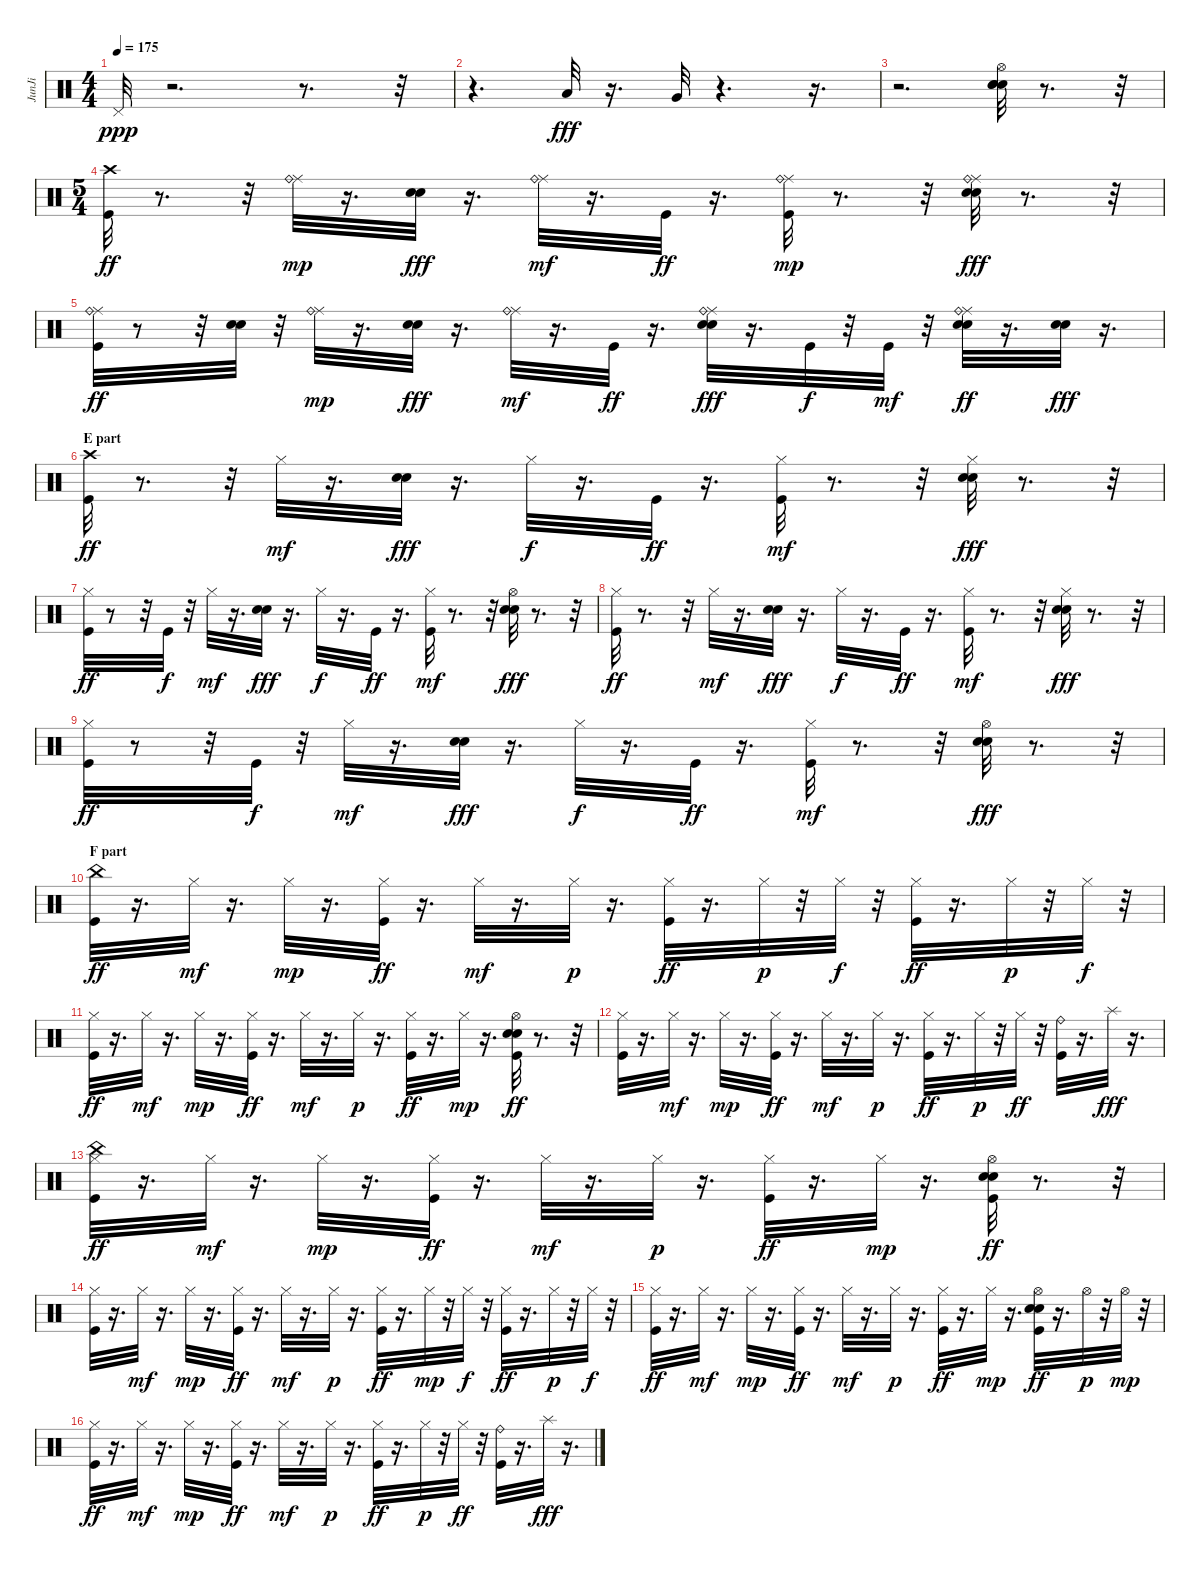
\track ("JunJi" "JunJi") {instrument percussion}
\staff {score}
\articulation defaults
\ts (4 4)
\tempo 175
\clef neutral
\ks c "Pedal Hi-Hat (hit)".32{dy ppp}
r.2{d} r.8{d} r.32 |
r.4{d} "Low Floor Tom (hit)".32{dy fff} r.16{d} "Very Low Tom (hit)".32 r.4{d} r.16{d} |
r.2{d} ("Hi-Hat (open)" "Electric Snare (hit)" "Snare (hit) 2" "Electric Snare (hit)").32 r.8{d} r.32 |
\ts (5 4)
("Crash high (hit)" "Kick (hit)").32{dy ff} r.8{d} r.32 ("Ride (middle)" "Ride (bell)").32{dy mp} r.16{d} ("Electric Snare (hit)" "Snare (hit) 2").32{dy fff} r.16{d} ("Ride (middle)" "Ride (bell)").32{dy mf} r.16{d} "Kick (hit)".32{dy ff} r.16{d} ("Ride (middle)" "Ride (bell)" "Kick (hit)").32{dy mp} r.8{d} r.32 ("Ride (middle)" "Ride (bell)" "Electric Snare (hit)" "Snare (hit) 2").32{dy fff} r.8{d} r.32 |
("Ride (middle)" "Ride (bell)" "Kick (hit)").32{dy ff} r.8 r.32 ("Electric Snare (hit)" "Snare (hit) 2").32 r.32 ("Ride (middle)" "Ride (bell)").32{dy mp} r.16{d} ("Electric Snare (hit)" "Snare (hit) 2").32{dy fff} r.16{d} ("Ride (middle)" "Ride (bell)").32{dy mf} r.16{d} "Kick (hit)".32{dy ff} r.16{d} ("Ride (middle)" "Ride (bell)" "Electric Snare (hit)" "Snare (hit) 2").32{dy fff} r.16{d} "Kick (hit)".32{dy f} r.32 "Kick (hit)".32{dy mf} r.32 ("Ride (middle)" "Ride (bell)" "Electric Snare (hit)" "Snare (hit) 2").32{dy ff} r.16{d} ("Electric Snare (hit)" "Snare (hit) 2").32{dy fff} r.16{d} |
\section ("" "E part")
("Crash high (hit)" "Kick (hit)").32{dy ff} r.8{d} r.32 "Hi-Hat (closed)".32{dy mf} r.16{d} ("Electric Snare (hit)" "Snare (hit) 2").32{dy fff} r.16{d} "Hi-Hat (closed)".32{dy f} r.16{d} "Kick (hit)".32{dy ff} r.16{d} ("Hi-Hat (closed)" "Kick (hit)").32{dy mf} r.8{d} r.32 ("Hi-Hat (closed)" "Electric Snare (hit)" "Snare (hit) 2").32{dy fff} r.8{d} r.32 |
("Hi-Hat (closed)" "Kick (hit)").32{dy ff} r.8 r.32 "Kick (hit)".32{dy f} r.32 "Hi-Hat (closed)".32{dy mf} r.16{d} ("Electric Snare (hit)" "Snare (hit) 2").32{dy fff} r.16{d} "Hi-Hat (closed)".32{dy f} r.16{d} "Kick (hit)".32{dy ff} r.16{d} ("Hi-Hat (closed)" "Kick (hit)").32{dy mf} r.8{d} r.32 ("Hi-Hat (open)" "Electric Snare (hit)" "Snare (hit) 2").32{dy fff} r.8{d} r.32 |
("Hi-Hat (closed)" "Kick (hit)").32{dy ff} r.8{d} r.32 "Hi-Hat (closed)".32{dy mf} r.16{d} ("Electric Snare (hit)" "Snare (hit) 2").32{dy fff} r.16{d} "Hi-Hat (closed)".32{dy f} r.16{d} "Kick (hit)".32{dy ff} r.16{d} ("Hi-Hat (closed)" "Kick (hit)").32{dy mf} r.8{d} r.32 ("Hi-Hat (closed)" "Electric Snare (hit)" "Snare (hit) 2").32{dy fff} r.8{d} r.32 |
("Hi-Hat (closed)" "Kick (hit)").32{dy ff} r.8 r.32 "Kick (hit)".32{dy f} r.32 "Hi-Hat (closed)".32{dy mf} r.16{d} ("Electric Snare (hit)" "Snare (hit) 2").32{dy fff} r.16{d} "Hi-Hat (closed)".32{dy f} r.16{d} "Kick (hit)".32{dy ff} r.16{d} ("Hi-Hat (closed)" "Kick (hit)").32{dy mf} r.8{d} r.32 ("Hi-Hat (open)" "Electric Snare (hit)" "Snare (hit) 2").32{dy fff} r.8{d} r.32 |
\section ("" "F part")
("China (hit)" "Kick (hit)").32{dy ff} r.16{d} "Hi-Hat (closed)".32{dy mf} r.16{d} "Hi-Hat (closed)".32{dy mp} r.16{d} ("Hi-Hat (closed)" "Kick (hit)").32{dy ff} r.16{d} "Hi-Hat (closed)".32{dy mf} r.16{d} "Hi-Hat (closed)".32{dy p} r.16{d} ("Hi-Hat (closed)" "Kick (hit)").32{dy ff} r.16{d} "Hi-Hat (closed)".32{dy p} r.32 "Hi-Hat (closed)".32{dy f} r.32 ("Hi-Hat (closed)" "Kick (hit)").32{dy ff} r.16{d} "Hi-Hat (closed)".32{dy p} r.32 "Hi-Hat (closed)".32{dy f} r.32 |
("Hi-Hat (closed)" "Kick (hit)").32{dy ff} r.16{d} "Hi-Hat (closed)".32{dy mf} r.16{d} "Hi-Hat (closed)".32{dy mp} r.16{d} ("Hi-Hat (closed)" "Kick (hit)").32{dy ff} r.16{d} "Hi-Hat (closed)".32{dy mf} r.16{d} "Hi-Hat (closed)".32{dy p} r.16{d} ("Hi-Hat (closed)" "Kick (hit)").32{dy ff} r.16{d} "Hi-Hat (closed)".32{dy mp} r.16{d} ("Hi-Hat (open)" "Electric Snare (hit)" "Kick (hit)" "Snare (hit) 2").32{dy ff} r.8{d} r.32 |
("Hi-Hat (closed)" "Kick (hit)").32 r.16{d} "Hi-Hat (closed)".32{dy mf} r.16{d} "Hi-Hat (closed)".32{dy mp} r.16{d} ("Hi-Hat (closed)" "Kick (hit)").32{dy ff} r.16{d} "Hi-Hat (closed)".32{dy mf} r.16{d} "Hi-Hat (closed)".32{dy p} r.16{d} ("Hi-Hat (closed)" "Kick (hit)").32{dy ff} r.16{d} "Hi-Hat (closed)".32{dy p} r.32 "Hi-Hat (closed)".32{dy ff} r.32 ("Ride (bell)" "Kick (hit)").32 r.16{d} "Splash (hit)".32{dy fff} r.16{d} |
("Hi-Hat (closed)" "China (hit)" "Kick (hit)").32{dy ff} r.16{d} "Hi-Hat (closed)".32{dy mf} r.16{d} "Hi-Hat (closed)".32{dy mp} r.16{d} ("Hi-Hat (closed)" "Kick (hit)").32{dy ff} r.16{d} "Hi-Hat (closed)".32{dy mf} r.16{d} "Hi-Hat (closed)".32{dy p} r.16{d} ("Hi-Hat (closed)" "Kick (hit)").32{dy ff} r.16{d} "Hi-Hat (closed)".32{dy mp} r.16{d} ("Hi-Hat (open)" "Electric Snare (hit)" "Kick (hit)" "Snare (hit) 2").32{dy ff} r.8{d} r.32 |
("Hi-Hat (closed)" "Kick (hit)").32 r.16{d} "Hi-Hat (closed)".32{dy mf} r.16{d} "Hi-Hat (closed)".32{dy mp} r.16{d} ("Hi-Hat (closed)" "Kick (hit)").32{dy ff} r.16{d} "Hi-Hat (closed)".32{dy mf} r.16{d} "Hi-Hat (closed)".32{dy p} r.16{d} ("Hi-Hat (closed)" "Kick (hit)").32{dy ff} r.16{d} "Hi-Hat (closed)".32{dy mp} r.32 "Hi-Hat (closed)".32{dy f} r.32 ("Hi-Hat (closed)" "Kick (hit)").32{dy ff} r.16{d} "Hi-Hat (closed)".32{dy p} r.32 "Hi-Hat (closed)".32{dy f} r.32 |
("Hi-Hat (closed)" "Kick (hit)").32{dy ff} r.16{d} "Hi-Hat (closed)".32{dy mf} r.16{d} "Hi-Hat (closed)".32{dy mp} r.16{d} ("Hi-Hat (closed)" "Kick (hit)").32{dy ff} r.16{d} "Hi-Hat (closed)".32{dy mf} r.16{d} "Hi-Hat (closed)".32{dy p} r.16{d} ("Hi-Hat (closed)" "Kick (hit)").32{dy ff} r.16{d} "Hi-Hat (closed)".32{dy mp} r.16{d} ("Hi-Hat (open)" "Electric Snare (hit)" "Kick (hit)" "Snare (hit) 2").32{dy ff} r.16{d} "Hi-Hat (open)".32{dy p} r.32 "Hi-Hat (open)".32{dy mp} r.32 |
("Hi-Hat (closed)" "Kick (hit)").32{dy ff} r.16{d} "Hi-Hat (closed)".32{dy mf} r.16{d} "Hi-Hat (closed)".32{dy mp} r.16{d} ("Hi-Hat (closed)" "Kick (hit)").32{dy ff} r.16{d} "Hi-Hat (closed)".32{dy mf} r.16{d} "Hi-Hat (closed)".32{dy p} r.16{d} ("Hi-Hat (closed)" "Kick (hit)").32{dy ff} r.16{d} "Hi-Hat (closed)".32{dy p} r.32 "Hi-Hat (closed)".32{dy ff} r.32 ("Ride (bell)" "Kick (hit)").32 r.16{d} "Splash (hit)".32{dy fff} r.16{d}
